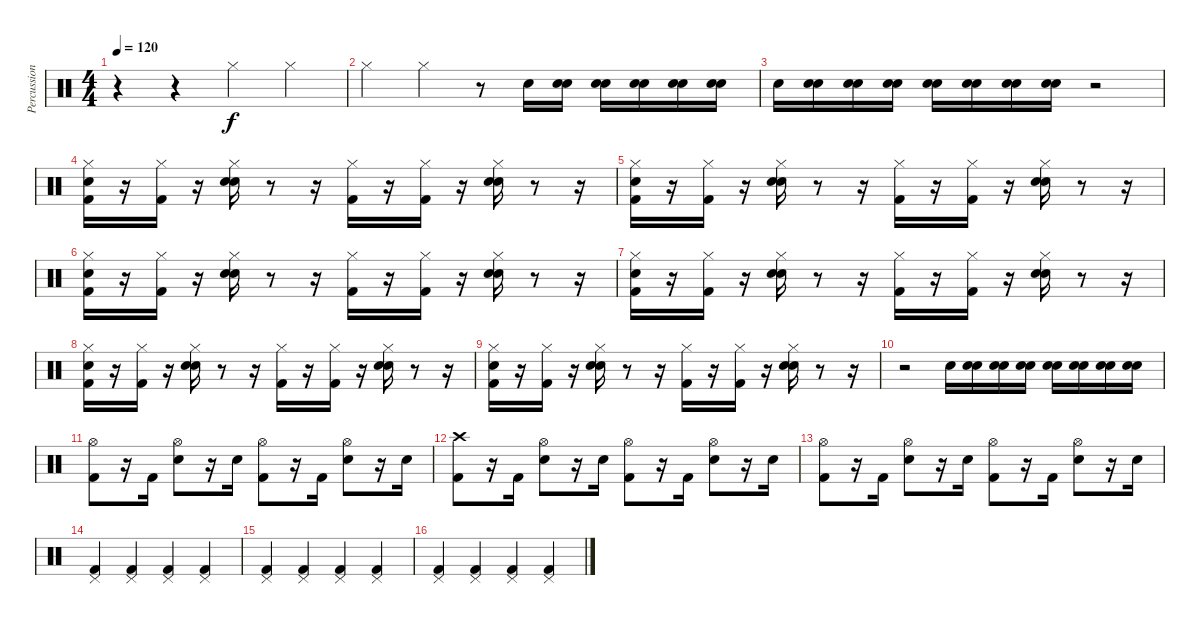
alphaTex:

\track ("Percussions" "Percussion") {instrument percussion}
\staff {score}
\articulation defaults
\ts (4 4)
\tempo 120
\clef neutral
\ks c
r.4{dy f} r.4 "Hi-Hat (closed)".4 "Hi-Hat (closed)".4 |
"Hi-Hat (closed)".4 "Hi-Hat (closed)".4 r.8 "Snare (hit) 2".16 ("Snare (hit)" "Snare (hit) 2").16 ("Snare (hit)" "Snare (hit) 2").16 ("Snare (hit)" "Snare (hit) 2").16 ("Snare (hit)" "Snare (hit) 2").16 ("Snare (hit)" "Snare (hit) 2").16 |
"Snare (hit) 2".16 ("Snare (hit)" "Snare (hit) 2").16 ("Snare (hit)" "Snare (hit) 2").16 ("Snare (hit)" "Snare (hit) 2").16 ("Snare (hit)" "Snare (hit) 2").16 ("Snare (hit)" "Snare (hit) 2").16 ("Snare (hit)" "Snare (hit) 2").16 ("Snare (hit)" "Snare (hit) 2").16 r.2 |
("Snare (hit)" "Kick (hit) 2" "Hi-Hat (closed)").16 r.16 ("Kick (hit) 2" "Hi-Hat (closed)").16 r.16 ("Hand Clap (hit)" "Hi-Hat (closed)" "Snare (hit) 2").16 r.8 r.16 ("Hi-Hat (closed)" "Kick (hit) 2").16 r.16 ("Hi-Hat (closed)" "Kick (hit) 2").16 r.16 ("Snare (hit) 2" "Hand Clap (hit)" "Hi-Hat (closed)").16 r.8 r.16 |
("Snare (hit)" "Kick (hit) 2" "Hi-Hat (closed)").16 r.16 ("Kick (hit) 2" "Hi-Hat (closed)").16 r.16 ("Hand Clap (hit)" "Hi-Hat (closed)" "Snare (hit) 2").16 r.8 r.16 ("Hi-Hat (closed)" "Kick (hit) 2").16 r.16 ("Hi-Hat (closed)" "Kick (hit) 2").16 r.16 ("Snare (hit) 2" "Hand Clap (hit)" "Hi-Hat (closed)").16 r.8 r.16 |
("Snare (hit)" "Kick (hit) 2" "Hi-Hat (closed)").16 r.16 ("Kick (hit) 2" "Hi-Hat (closed)").16 r.16 ("Hand Clap (hit)" "Hi-Hat (closed)" "Snare (hit) 2").16 r.8 r.16 ("Hi-Hat (closed)" "Kick (hit) 2").16 r.16 ("Hi-Hat (closed)" "Kick (hit) 2").16 r.16 ("Snare (hit) 2" "Hand Clap (hit)" "Hi-Hat (closed)").16 r.8 r.16 |
("Snare (hit)" "Kick (hit) 2" "Hi-Hat (closed)").16 r.16 ("Kick (hit) 2" "Hi-Hat (closed)").16 r.16 ("Hand Clap (hit)" "Hi-Hat (closed)" "Snare (hit) 2").16 r.8 r.16 ("Hi-Hat (closed)" "Kick (hit) 2").16 r.16 ("Hi-Hat (closed)" "Kick (hit) 2").16 r.16 ("Snare (hit) 2" "Hand Clap (hit)" "Hi-Hat (closed)").16 r.8 r.16 |
("Snare (hit)" "Kick (hit) 2" "Hi-Hat (closed)").16 r.16 ("Kick (hit) 2" "Hi-Hat (closed)").16 r.16 ("Hand Clap (hit)" "Hi-Hat (closed)" "Snare (hit) 2").16 r.8 r.16 ("Hi-Hat (closed)" "Kick (hit) 2").16 r.16 ("Hi-Hat (closed)" "Kick (hit) 2").16 r.16 ("Snare (hit) 2" "Hand Clap (hit)" "Hi-Hat (closed)").16 r.8 r.16 |
("Snare (hit)" "Kick (hit) 2" "Hi-Hat (closed)").16 r.16 ("Kick (hit) 2" "Hi-Hat (closed)").16 r.16 ("Hand Clap (hit)" "Hi-Hat (closed)" "Snare (hit) 2").16 r.8 r.16 ("Hi-Hat (closed)" "Kick (hit) 2").16 r.16 ("Hi-Hat (closed)" "Kick (hit) 2").16 r.16 ("Snare (hit) 2" "Hand Clap (hit)" "Hi-Hat (closed)").16 r.8 r.16 |
r.2 "Snare (hit) 2".16 ("Snare (hit)" "Snare (hit) 2").16 ("Snare (hit)" "Snare (hit) 2").16 ("Snare (hit)" "Snare (hit) 2").16 ("Snare (hit)" "Snare (hit) 2").16 ("Snare (hit)" "Snare (hit) 2").16 ("Snare (hit)" "Snare (hit) 2").16 ("Snare (hit)" "Snare (hit) 2").16 |
("Hi-Hat (open)" "Kick (hit) 2").8 r.16 "Kick (hit) 2".16 ("Hi-Hat (open)" "Electric Snare (hit)").8 r.16 "Electric Snare (hit)".16 ("Hi-Hat (open)" "Kick (hit) 2").8 r.16 "Kick (hit) 2".16 ("Hi-Hat (open)" "Electric Snare (hit)").8 r.16 "Electric Snare (hit)".16 |
("Crash high (hit)" "Kick (hit) 2").8 r.16 "Kick (hit) 2".16 ("Hi-Hat (open)" "Electric Snare (hit)").8 r.16 "Electric Snare (hit)".16 ("Hi-Hat (open)" "Kick (hit) 2").8 r.16 "Kick (hit) 2".16 ("Hi-Hat (open)" "Electric Snare (hit)").8 r.16 "Electric Snare (hit)".16 |
("Hi-Hat (open)" "Kick (hit) 2").8 r.16 "Kick (hit) 2".16 ("Hi-Hat (open)" "Electric Snare (hit)").8 r.16 "Electric Snare (hit)".16 ("Hi-Hat (open)" "Kick (hit) 2").8 r.16 "Kick (hit) 2".16 ("Hi-Hat (open)" "Electric Snare (hit)").8 r.16 "Electric Snare (hit)".16 |
("Pedal Hi-Hat (hit)" "Kick (hit) 2").4 ("Pedal Hi-Hat (hit)" "Kick (hit) 2").4 ("Pedal Hi-Hat (hit)" "Kick (hit) 2").4 ("Pedal Hi-Hat (hit)" "Kick (hit) 2").4 |
("Pedal Hi-Hat (hit)" "Kick (hit) 2").4 ("Pedal Hi-Hat (hit)" "Kick (hit) 2").4 ("Pedal Hi-Hat (hit)" "Kick (hit) 2").4 ("Pedal Hi-Hat (hit)" "Kick (hit) 2").4 |
("Pedal Hi-Hat (hit)" "Kick (hit) 2").4 ("Pedal Hi-Hat (hit)" "Kick (hit) 2").4 ("Pedal Hi-Hat (hit)" "Kick (hit) 2").4 ("Pedal Hi-Hat (hit)" "Kick (hit) 2").4
